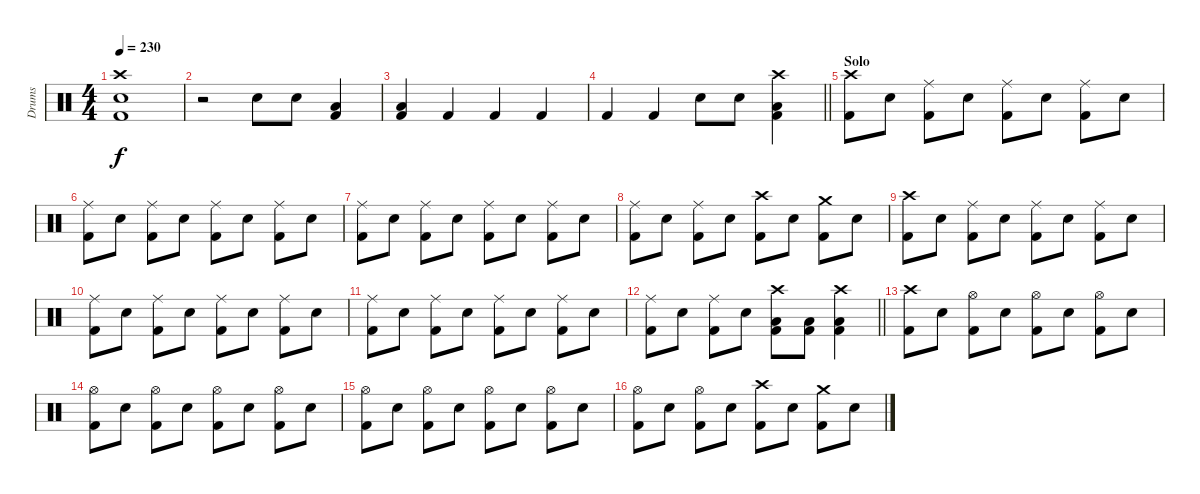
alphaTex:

\track ("Drums" "Drums") {instrument percussion}
\staff {score}
\articulation defaults
\ts (4 4)
\tempo 230
\clef neutral
\ks c
("Crash high (hit)" "Electric Snare (hit)" "Kick (hit) 2").1{dy f} |
r.2 "Electric Snare (hit)".8 "Electric Snare (hit)".8 ("Low Tom (hit)" "Kick (hit) 2").4 |
("Low Tom (hit)" "Kick (hit) 2").4 "Kick (hit) 2".4 "Kick (hit) 2".4 "Kick (hit) 2".4 |
\barLineRight lightlight "Kick (hit) 2".4 "Kick (hit) 2".4 "Electric Snare (hit)".8 "Electric Snare (hit)".8
("Crash high (hit)" "Low Tom (hit)" "Kick (hit) 2").4 |
\section ("" "Solo")
("Crash high (hit)" "Kick (hit) 2").8 "Electric Snare (hit)".8 ("Ride (middle)" "Kick (hit) 2").8 "Electric Snare (hit)".8 ("Ride (middle)" "Kick (hit) 2").8 "Electric Snare (hit)".8 ("Ride (middle)" "Kick (hit) 2").8 "Electric Snare (hit)".8 |
("Ride (middle)" "Kick (hit) 2").8 "Electric Snare (hit)".8 ("Ride (middle)" "Kick (hit) 2").8 "Electric Snare (hit)".8 ("Ride (middle)" "Kick (hit) 2").8 "Electric Snare (hit)".8 ("Ride (middle)" "Kick (hit) 2").8 "Electric Snare (hit)".8 |
("Ride (middle)" "Kick (hit) 2").8 "Electric Snare (hit)".8 ("Ride (middle)" "Kick (hit) 2").8 "Electric Snare (hit)".8 ("Ride (middle)" "Kick (hit) 2").8 "Electric Snare (hit)".8 ("Ride (middle)" "Kick (hit) 2").8 "Electric Snare (hit)".8 |
("Ride (middle)" "Kick (hit) 2").8 "Electric Snare (hit)".8 ("Ride (middle)" "Kick (hit) 2").8 "Electric Snare (hit)".8 ("Crash high (hit)" "Kick (hit) 2").8 "Electric Snare (hit)".8 ("Crash medium (hit)" "Kick (hit) 2").8 "Electric Snare (hit)".8 |
("Crash high (hit)" "Kick (hit) 2").8 "Electric Snare (hit)".8 ("Ride (middle)" "Kick (hit) 2").8 "Electric Snare (hit)".8 ("Ride (middle)" "Kick (hit) 2").8 "Electric Snare (hit)".8 ("Ride (middle)" "Kick (hit) 2").8 "Electric Snare (hit)".8 |
("Ride (middle)" "Kick (hit) 2").8 "Electric Snare (hit)".8 ("Ride (middle)" "Kick (hit) 2").8 "Electric Snare (hit)".8 ("Ride (middle)" "Kick (hit) 2").8 "Electric Snare (hit)".8 ("Ride (middle)" "Kick (hit) 2").8 "Electric Snare (hit)".8 |
("Ride (middle)" "Kick (hit) 2").8 "Electric Snare (hit)".8 ("Ride (middle)" "Kick (hit) 2").8 "Electric Snare (hit)".8 ("Ride (middle)" "Kick (hit) 2").8 "Electric Snare (hit)".8 ("Ride (middle)" "Kick (hit) 2").8 "Electric Snare (hit)".8 |
\barLineRight lightlight
("Ride (middle)" "Kick (hit) 2").8 "Electric Snare (hit)".8 ("Ride (middle)" "Kick (hit) 2").8 "Electric Snare (hit)".8 ("Crash high (hit)" "Low Tom (hit)" "Kick (hit) 2").8 ("Low Tom (hit)" "Kick (hit) 2").8 ("Crash high (hit)" "Low Tom (hit)" "Kick (hit) 2").4 |
("Crash high (hit)" "Kick (hit) 2").8 "Electric Snare (hit)".8 ("Hi-Hat (open)" "Kick (hit) 2").8 "Electric Snare (hit)".8 ("Hi-Hat (open)" "Kick (hit) 2").8 "Electric Snare (hit)".8 ("Hi-Hat (open)" "Kick (hit) 2").8 "Electric Snare (hit)".8 |
("Hi-Hat (open)" "Kick (hit) 2").8 "Electric Snare (hit)".8 ("Hi-Hat (open)" "Kick (hit) 2").8 "Electric Snare (hit)".8 ("Hi-Hat (open)" "Kick (hit) 2").8 "Electric Snare (hit)".8 ("Hi-Hat (open)" "Kick (hit) 2").8 "Electric Snare (hit)".8 |
("Hi-Hat (open)" "Kick (hit) 2").8 "Electric Snare (hit)".8 ("Hi-Hat (open)" "Kick (hit) 2").8 "Electric Snare (hit)".8 ("Hi-Hat (open)" "Kick (hit) 2").8 "Electric Snare (hit)".8 ("Hi-Hat (open)" "Kick (hit) 2").8 "Electric Snare (hit)".8 |
("Hi-Hat (open)" "Kick (hit) 2").8 "Electric Snare (hit)".8 ("Hi-Hat (open)" "Kick (hit) 2").8 "Electric Snare (hit)".8 ("Crash high (hit)" "Kick (hit) 2").8 "Electric Snare (hit)".8 ("Crash medium (hit)" "Kick (hit) 2").8 "Electric Snare (hit)".8
